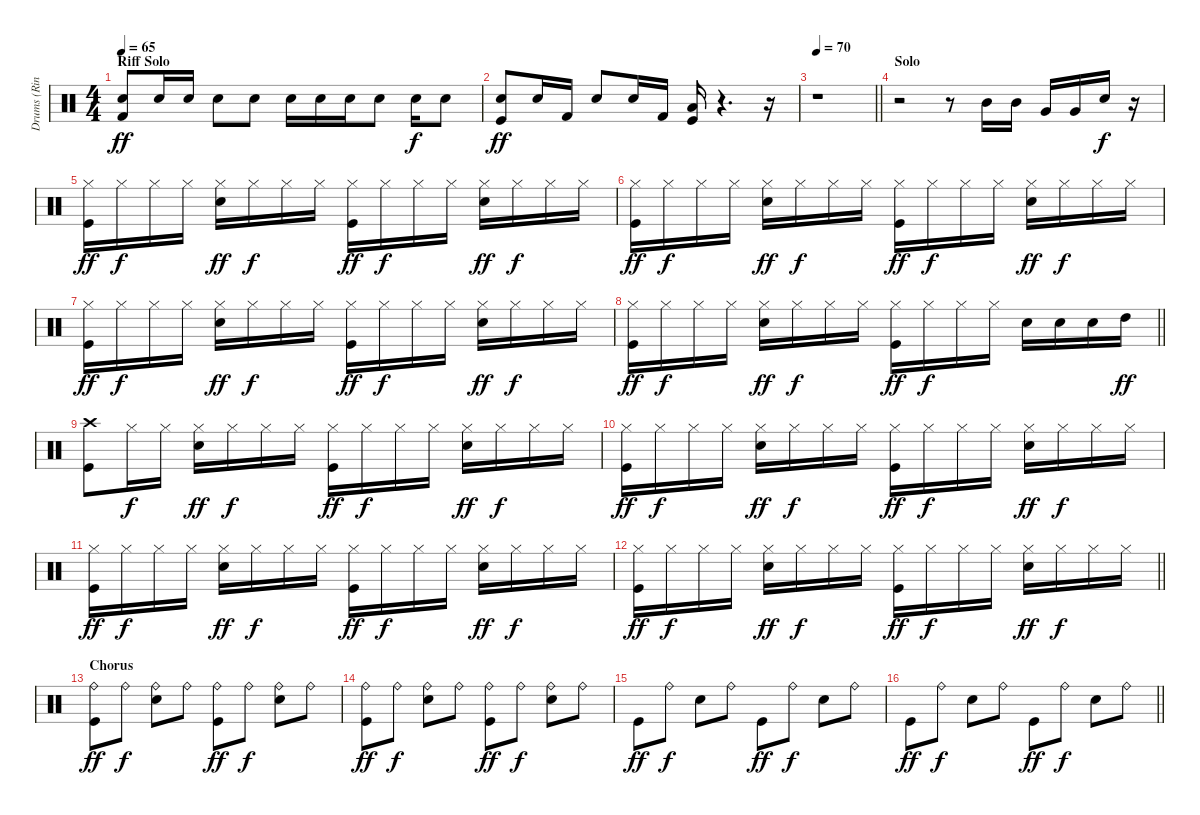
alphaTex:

\track ("Drums (Ringo Starr)" "Drums (Rin") {instrument percussion}
\staff {score}
\articulation defaults
\ts (4 4)
\section ("" "Riff Solo")
\tempo 65
\clef neutral
\ks c
("Kick (hit) 2" "Electric Snare (hit)").8{dy ff} "Electric Snare (hit)".16 "Electric Snare (hit)".16 "Electric Snare (hit)".8 "Snare (hit) 2".8 "Snare (hit) 2".16 "Snare (hit) 2".16 "Snare (hit) 2".16 "Snare (hit) 2".8 "Snare (hit) 2".16{dy f} "Snare (hit) 2".8 |
("Snare (hit) 2" "Kick (hit)").8{dy ff} "Snare (hit) 2".16 "Kick (hit) 2".16 "Snare (hit) 2".8 "Snare (hit) 2".16 "Kick (hit) 2".16 ("Kick (hit)" "Low Floor Tom (hit)").16 r.4{d} r.16 |
\tempo 70
\barLineRight lightlight
r.1 |
\section ("" "Solo")
r.2 r.8 "Mid Tom (hit)".16 "Mid Tom (hit)".16 "Very Low Tom (hit)".16 "Very Low Tom (hit)".16 "Snare (hit) 2".16{dy f} r.16 |
("Hi-Hat (closed)" "Kick (hit)").16{dy ff} "Hi-Hat (closed)".16{dy f} "Hi-Hat (closed)".16 "Hi-Hat (closed)".16 ("Hi-Hat (closed)" "Snare (hit) 2").16{dy ff} "Hi-Hat (closed)".16{dy f} "Hi-Hat (closed)".16 "Hi-Hat (closed)".16 ("Hi-Hat (closed)" "Kick (hit)").16{dy ff} "Hi-Hat (closed)".16{dy f} "Hi-Hat (closed)".16 "Hi-Hat (closed)".16 ("Hi-Hat (closed)" "Snare (hit) 2").16{dy ff} "Hi-Hat (closed)".16{dy f} "Hi-Hat (closed)".16 "Hi-Hat (closed)".16 |
("Hi-Hat (closed)" "Kick (hit)").16{dy ff} "Hi-Hat (closed)".16{dy f} "Hi-Hat (closed)".16 "Hi-Hat (closed)".16 ("Hi-Hat (closed)" "Snare (hit) 2").16{dy ff} "Hi-Hat (closed)".16{dy f} "Hi-Hat (closed)".16 "Hi-Hat (closed)".16 ("Hi-Hat (closed)" "Kick (hit)").16{dy ff} "Hi-Hat (closed)".16{dy f} "Hi-Hat (closed)".16 "Hi-Hat (closed)".16 ("Hi-Hat (closed)" "Snare (hit) 2").16{dy ff} "Hi-Hat (closed)".16{dy f} "Hi-Hat (closed)".16 "Hi-Hat (closed)".16 |
("Hi-Hat (closed)" "Kick (hit)").16{dy ff} "Hi-Hat (closed)".16{dy f} "Hi-Hat (closed)".16 "Hi-Hat (closed)".16 ("Hi-Hat (closed)" "Snare (hit) 2").16{dy ff} "Hi-Hat (closed)".16{dy f} "Hi-Hat (closed)".16 "Hi-Hat (closed)".16 ("Hi-Hat (closed)" "Kick (hit)").16{dy ff} "Hi-Hat (closed)".16{dy f} "Hi-Hat (closed)".16 "Hi-Hat (closed)".16 ("Hi-Hat (closed)" "Snare (hit) 2").16{dy ff} "Hi-Hat (closed)".16{dy f} "Hi-Hat (closed)".16 "Hi-Hat (closed)".16 |
\barLineRight lightlight
("Hi-Hat (closed)" "Kick (hit)").16{dy ff} "Hi-Hat (closed)".16{dy f} "Hi-Hat (closed)".16 "Hi-Hat (closed)".16 ("Hi-Hat (closed)" "Snare (hit) 2").16{dy ff} "Hi-Hat (closed)".16{dy f} "Hi-Hat (closed)".16 "Hi-Hat (closed)".16 ("Hi-Hat (closed)" "Kick (hit)").16{dy ff} "Hi-Hat (closed)".16{dy f} "Hi-Hat (closed)".16 "Hi-Hat (closed)".16 "Snare (hit) 2".16 "Snare (hit) 2".16 "Snare (hit) 2".16 "High Tom (hit)".16{dy ff} |
("Kick (hit)" "Crash high (hit)").8 "Hi-Hat (closed)".16{dy f} "Hi-Hat (closed)".16 ("Hi-Hat (closed)" "Snare (hit) 2").16{dy ff} "Hi-Hat (closed)".16{dy f} "Hi-Hat (closed)".16 "Hi-Hat (closed)".16 ("Hi-Hat (closed)" "Kick (hit)").16{dy ff} "Hi-Hat (closed)".16{dy f} "Hi-Hat (closed)".16 "Hi-Hat (closed)".16 ("Hi-Hat (closed)" "Snare (hit) 2").16{dy ff} "Hi-Hat (closed)".16{dy f} "Hi-Hat (closed)".16 "Hi-Hat (closed)".16 |
("Hi-Hat (closed)" "Kick (hit)").16{dy ff} "Hi-Hat (closed)".16{dy f} "Hi-Hat (closed)".16 "Hi-Hat (closed)".16 ("Hi-Hat (closed)" "Snare (hit) 2").16{dy ff} "Hi-Hat (closed)".16{dy f} "Hi-Hat (closed)".16 "Hi-Hat (closed)".16 ("Hi-Hat (closed)" "Kick (hit)").16{dy ff} "Hi-Hat (closed)".16{dy f} "Hi-Hat (closed)".16 "Hi-Hat (closed)".16 ("Hi-Hat (closed)" "Snare (hit) 2").16{dy ff} "Hi-Hat (closed)".16{dy f} "Hi-Hat (closed)".16 "Hi-Hat (closed)".16 |
("Hi-Hat (closed)" "Kick (hit)").16{dy ff} "Hi-Hat (closed)".16{dy f} "Hi-Hat (closed)".16 "Hi-Hat (closed)".16 ("Hi-Hat (closed)" "Snare (hit) 2").16{dy ff} "Hi-Hat (closed)".16{dy f} "Hi-Hat (closed)".16 "Hi-Hat (closed)".16 ("Hi-Hat (closed)" "Kick (hit)").16{dy ff} "Hi-Hat (closed)".16{dy f} "Hi-Hat (closed)".16 "Hi-Hat (closed)".16 ("Hi-Hat (closed)" "Snare (hit) 2").16{dy ff} "Hi-Hat (closed)".16{dy f} "Hi-Hat (closed)".16 "Hi-Hat (closed)".16 |
\barLineRight lightlight
("Hi-Hat (closed)" "Kick (hit)").16{dy ff} "Hi-Hat (closed)".16{dy f} "Hi-Hat (closed)".16 "Hi-Hat (closed)".16 ("Hi-Hat (closed)" "Snare (hit) 2").16{dy ff} "Hi-Hat (closed)".16{dy f} "Hi-Hat (closed)".16 "Hi-Hat (closed)".16 ("Hi-Hat (closed)" "Kick (hit)").16{dy ff} "Hi-Hat (closed)".16{dy f} "Hi-Hat (closed)".16 "Hi-Hat (closed)".16 ("Hi-Hat (closed)" "Snare (hit) 2").16{dy ff} "Hi-Hat (closed)".16{dy f} "Hi-Hat (closed)".16 "Hi-Hat (closed)".16 |
\section ("" "Chorus")
("Kick (hit)" "Ride (bell)").8{dy ff} "Ride (bell)".8{dy f} ("Snare (hit) 2" "Ride (bell)").8 "Ride (bell)".8 ("Kick (hit)" "Ride (bell)").8{dy ff} "Ride (bell)".8{dy f} ("Snare (hit) 2" "Ride (bell)").8 "Ride (bell)".8 |
("Kick (hit)" "Ride (bell)").8{dy ff} "Ride (bell)".8{dy f} ("Snare (hit) 2" "Ride (bell)").8 "Ride (bell)".8 ("Kick (hit)" "Ride (bell)").8{dy ff} "Ride (bell)".8{dy f} ("Snare (hit) 2" "Ride (bell)").8 "Ride (bell)".8 |
"Kick (hit)".8{dy ff} "Ride (bell)".8{dy f} "Snare (hit) 2".8 "Ride (bell)".8 "Kick (hit)".8{dy ff} "Ride (bell)".8{dy f} "Snare (hit) 2".8 "Ride (bell)".8 |
\barLineRight lightlight "Kick (hit)".8{dy ff} "Ride (bell)".8{dy f} "Snare (hit) 2".8 "Ride (bell)".8 "Kick (hit)".8{dy ff} "Ride (bell)".8{dy f} "Snare (hit) 2".8 "Ride (bell)".8
